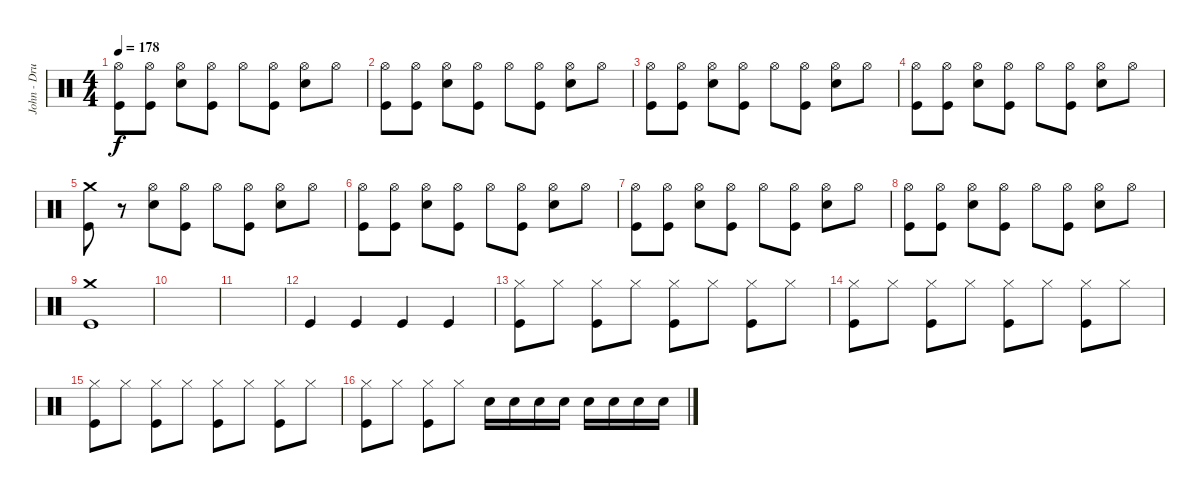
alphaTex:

\track ("John - Drums" "John - Dru") {instrument percussion}
\staff {score}
\articulation defaults
\ts (4 4)
\tempo 178
\clef neutral
\ks c
("Hi-Hat (open)" "Kick (hit)").8{dy f} ("Hi-Hat (open)" "Kick (hit)").8 ("Hi-Hat (open)" "Electric Snare (hit)").8 ("Hi-Hat (open)" "Kick (hit)").8 "Hi-Hat (open)".8 ("Hi-Hat (open)" "Kick (hit)").8 ("Hi-Hat (open)" "Electric Snare (hit)").8 "Hi-Hat (open)".8 |
("Hi-Hat (open)" "Kick (hit)").8 ("Hi-Hat (open)" "Kick (hit)").8 ("Hi-Hat (open)" "Electric Snare (hit)").8 ("Hi-Hat (open)" "Kick (hit)").8 "Hi-Hat (open)".8 ("Hi-Hat (open)" "Kick (hit)").8 ("Hi-Hat (open)" "Electric Snare (hit)").8 "Hi-Hat (open)".8 |
("Hi-Hat (open)" "Kick (hit)").8 ("Hi-Hat (open)" "Kick (hit)").8 ("Hi-Hat (open)" "Electric Snare (hit)").8 ("Hi-Hat (open)" "Kick (hit)").8 "Hi-Hat (open)".8 ("Hi-Hat (open)" "Kick (hit)").8 ("Hi-Hat (open)" "Electric Snare (hit)").8 "Hi-Hat (open)".8 |
("Hi-Hat (open)" "Kick (hit)").8 ("Hi-Hat (open)" "Kick (hit)").8 ("Hi-Hat (open)" "Electric Snare (hit)").8 ("Hi-Hat (open)" "Kick (hit)").8 "Hi-Hat (open)".8 ("Hi-Hat (open)" "Kick (hit)").8 ("Hi-Hat (open)" "Electric Snare (hit)").8 "Hi-Hat (open)".8 |
("Crash medium (hit)" "Kick (hit)").8 r.8 ("Hi-Hat (open)" "Electric Snare (hit)").8 ("Hi-Hat (open)" "Kick (hit)").8 "Hi-Hat (open)".8 ("Hi-Hat (open)" "Kick (hit)").8 ("Hi-Hat (open)" "Electric Snare (hit)").8 "Hi-Hat (open)".8 |
("Hi-Hat (open)" "Kick (hit)").8 ("Hi-Hat (open)" "Kick (hit)").8 ("Hi-Hat (open)" "Electric Snare (hit)").8 ("Hi-Hat (open)" "Kick (hit)").8 "Hi-Hat (open)".8 ("Hi-Hat (open)" "Kick (hit)").8 ("Hi-Hat (open)" "Electric Snare (hit)").8 "Hi-Hat (open)".8 |
("Hi-Hat (open)" "Kick (hit)").8 ("Hi-Hat (open)" "Kick (hit)").8 ("Hi-Hat (open)" "Electric Snare (hit)").8 ("Hi-Hat (open)" "Kick (hit)").8 "Hi-Hat (open)".8 ("Hi-Hat (open)" "Kick (hit)").8 ("Hi-Hat (open)" "Electric Snare (hit)").8 "Hi-Hat (open)".8 |
("Hi-Hat (open)" "Kick (hit)").8 ("Hi-Hat (open)" "Kick (hit)").8 ("Hi-Hat (open)" "Electric Snare (hit)").8 ("Hi-Hat (open)" "Kick (hit)").8 "Hi-Hat (open)".8 ("Hi-Hat (open)" "Kick (hit)").8 ("Hi-Hat (open)" "Electric Snare (hit)").8 "Hi-Hat (open)".8 |
("Crash medium (hit)" "Kick (hit)").1 |
|
|
"Kick (hit)".4 "Kick (hit)".4 "Kick (hit)".4 "Kick (hit)".4 |
("Hi-Hat (closed)" "Kick (hit)").8 "Hi-Hat (closed)".8 ("Hi-Hat (closed)" "Kick (hit)").8 "Hi-Hat (closed)".8 ("Hi-Hat (closed)" "Kick (hit)").8 "Hi-Hat (closed)".8 ("Hi-Hat (closed)" "Kick (hit)").8 "Hi-Hat (closed)".8 |
("Hi-Hat (closed)" "Kick (hit)").8 "Hi-Hat (closed)".8 ("Hi-Hat (closed)" "Kick (hit)").8 "Hi-Hat (closed)".8 ("Hi-Hat (closed)" "Kick (hit)").8 "Hi-Hat (closed)".8 ("Hi-Hat (closed)" "Kick (hit)").8 "Hi-Hat (closed)".8 |
("Hi-Hat (closed)" "Kick (hit)").8 "Hi-Hat (closed)".8 ("Hi-Hat (closed)" "Kick (hit)").8 "Hi-Hat (closed)".8 ("Hi-Hat (closed)" "Kick (hit)").8 "Hi-Hat (closed)".8 ("Hi-Hat (closed)" "Kick (hit)").8 "Hi-Hat (closed)".8 |
("Hi-Hat (closed)" "Kick (hit)").8 "Hi-Hat (closed)".8 ("Hi-Hat (closed)" "Kick (hit)").8 "Hi-Hat (closed)".8 "Electric Snare (hit)".16 "Electric Snare (hit)".16 "Electric Snare (hit)".16 "Electric Snare (hit)".16 "Electric Snare (hit)".16 "Electric Snare (hit)".16 "Electric Snare (hit)".16 "Electric Snare (hit)".16
